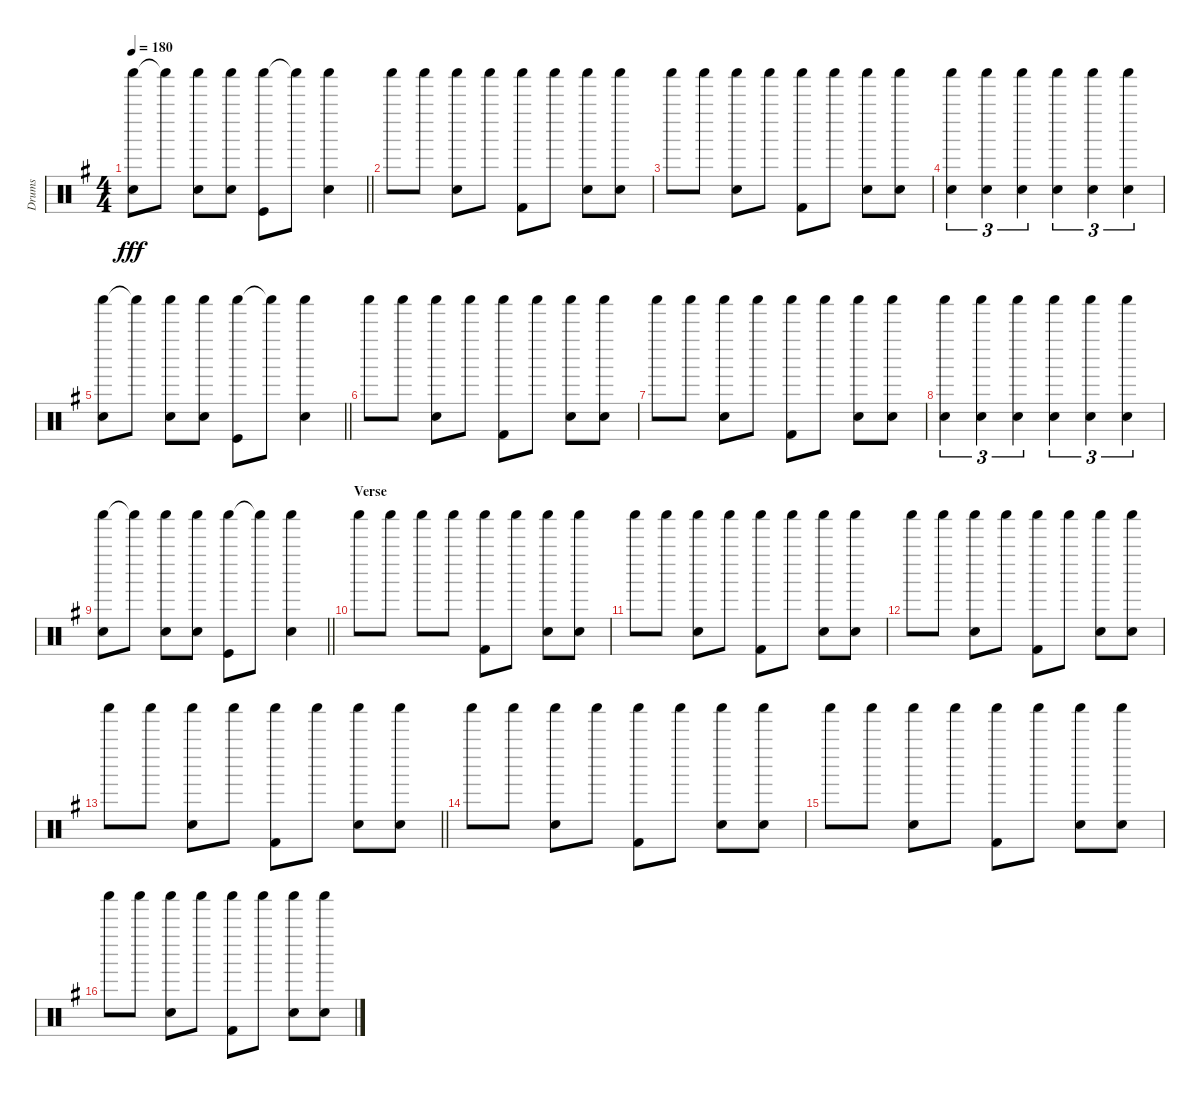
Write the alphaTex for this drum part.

\track ("Drums" "Drums") {instrument percussion}
\staff {score}
\articulation defaults
\ts (4 4)
\tempo 180
\clef neutral
\barLineRight lightlight
\ks eminor
("Shaker (hit)" "Snare (hit) 2").8{dy fff} "Shaker (hit)"{t}.8 ("Shaker (hit)" "Snare (hit) 2").8 ("Shaker (hit)" "Snare (hit) 2").8 ("Shaker (hit)" "Kick (hit)").8 "Shaker (hit)"{t}.8 ("Shaker (hit)" "Snare (hit) 2").4 |
"Shaker (hit)".8 "Shaker (hit)".8 ("Shaker (hit)" "Snare (hit) 2").8 "Shaker (hit)".8 ("Shaker (hit)" "Kick (hit) 2").8 "Shaker (hit)".8 ("Shaker (hit)" "Snare (hit) 2").8 ("Shaker (hit)" "Snare (hit) 2").8 |
"Shaker (hit)".8 "Shaker (hit)".8 ("Shaker (hit)" "Snare (hit) 2").8 "Shaker (hit)".8 ("Shaker (hit)" "Kick (hit) 2").8 "Shaker (hit)".8 ("Shaker (hit)" "Snare (hit) 2").8 ("Shaker (hit)" "Snare (hit) 2").8 |
("Shaker (hit)" "Snare (hit) 2").4{tu (3 2)} ("Shaker (hit)" "Snare (hit) 2").4{tu (3 2)} ("Shaker (hit)" "Snare (hit) 2").4{tu (3 2)} ("Shaker (hit)" "Snare (hit) 2").4{tu (3 2)} ("Shaker (hit)" "Snare (hit) 2").4{tu (3 2)} ("Shaker (hit)" "Snare (hit) 2").4{tu (3 2)} |
\barLineRight lightlight
("Shaker (hit)" "Snare (hit) 2").8 "Shaker (hit)"{t}.8 ("Shaker (hit)" "Snare (hit) 2").8 ("Shaker (hit)" "Snare (hit) 2").8 ("Shaker (hit)" "Kick (hit)").8 "Shaker (hit)"{t}.8 ("Shaker (hit)" "Snare (hit) 2").4 |
"Shaker (hit)".8 "Shaker (hit)".8 ("Shaker (hit)" "Snare (hit) 2").8 "Shaker (hit)".8 ("Shaker (hit)" "Kick (hit) 2").8 "Shaker (hit)".8 ("Shaker (hit)" "Snare (hit) 2").8 ("Shaker (hit)" "Snare (hit) 2").8 |
"Shaker (hit)".8 "Shaker (hit)".8 ("Shaker (hit)" "Snare (hit) 2").8 "Shaker (hit)".8 ("Shaker (hit)" "Kick (hit) 2").8 "Shaker (hit)".8 ("Shaker (hit)" "Snare (hit) 2").8 ("Shaker (hit)" "Snare (hit) 2").8 |
("Shaker (hit)" "Snare (hit) 2").4{tu (3 2)} ("Shaker (hit)" "Snare (hit) 2").4{tu (3 2)} ("Shaker (hit)" "Snare (hit) 2").4{tu (3 2)} ("Shaker (hit)" "Snare (hit) 2").4{tu (3 2)} ("Shaker (hit)" "Snare (hit) 2").4{tu (3 2)} ("Shaker (hit)" "Snare (hit) 2").4{tu (3 2)} |
\barLineRight lightlight
("Shaker (hit)" "Snare (hit) 2").8 "Shaker (hit)"{t}.8 ("Shaker (hit)" "Snare (hit) 2").8 ("Shaker (hit)" "Snare (hit) 2").8 ("Shaker (hit)" "Kick (hit)").8 "Shaker (hit)"{t}.8 ("Shaker (hit)" "Snare (hit) 2").4 |
\section ("" "Verse")
"Shaker (hit)".8 "Shaker (hit)".8 "Shaker (hit)".8 "Shaker (hit)".8 ("Shaker (hit)" "Kick (hit) 2").8 "Shaker (hit)".8 ("Shaker (hit)" "Snare (hit) 2").8 ("Shaker (hit)" "Snare (hit) 2").8 |
"Shaker (hit)".8 "Shaker (hit)".8 ("Shaker (hit)" "Snare (hit) 2").8 "Shaker (hit)".8 ("Shaker (hit)" "Kick (hit) 2").8 "Shaker (hit)".8 ("Shaker (hit)" "Snare (hit) 2").8 ("Shaker (hit)" "Snare (hit) 2").8 |
"Shaker (hit)".8 "Shaker (hit)".8 ("Shaker (hit)" "Snare (hit) 2").8 "Shaker (hit)".8 ("Shaker (hit)" "Kick (hit) 2").8 "Shaker (hit)".8 ("Shaker (hit)" "Snare (hit) 2").8 ("Shaker (hit)" "Snare (hit) 2").8 |
\barLineRight lightlight "Shaker (hit)".8 "Shaker (hit)".8
("Shaker (hit)" "Snare (hit) 2").8 "Shaker (hit)".8 ("Shaker (hit)" "Kick (hit) 2").8 "Shaker (hit)".8 ("Shaker (hit)" "Snare (hit) 2").8 ("Shaker (hit)" "Snare (hit) 2").8 |
"Shaker (hit)".8 "Shaker (hit)".8 ("Shaker (hit)" "Snare (hit) 2").8 "Shaker (hit)".8 ("Shaker (hit)" "Kick (hit) 2").8 "Shaker (hit)".8 ("Shaker (hit)" "Snare (hit) 2").8 ("Shaker (hit)" "Snare (hit) 2").8 |
"Shaker (hit)".8 "Shaker (hit)".8 ("Shaker (hit)" "Snare (hit) 2").8 "Shaker (hit)".8 ("Shaker (hit)" "Kick (hit) 2").8 "Shaker (hit)".8 ("Shaker (hit)" "Snare (hit) 2").8 ("Shaker (hit)" "Snare (hit) 2").8 |
"Shaker (hit)".8 "Shaker (hit)".8 ("Shaker (hit)" "Snare (hit) 2").8 "Shaker (hit)".8 ("Shaker (hit)" "Kick (hit) 2").8 "Shaker (hit)".8 ("Shaker (hit)" "Snare (hit) 2").8 ("Shaker (hit)" "Snare (hit) 2").8
